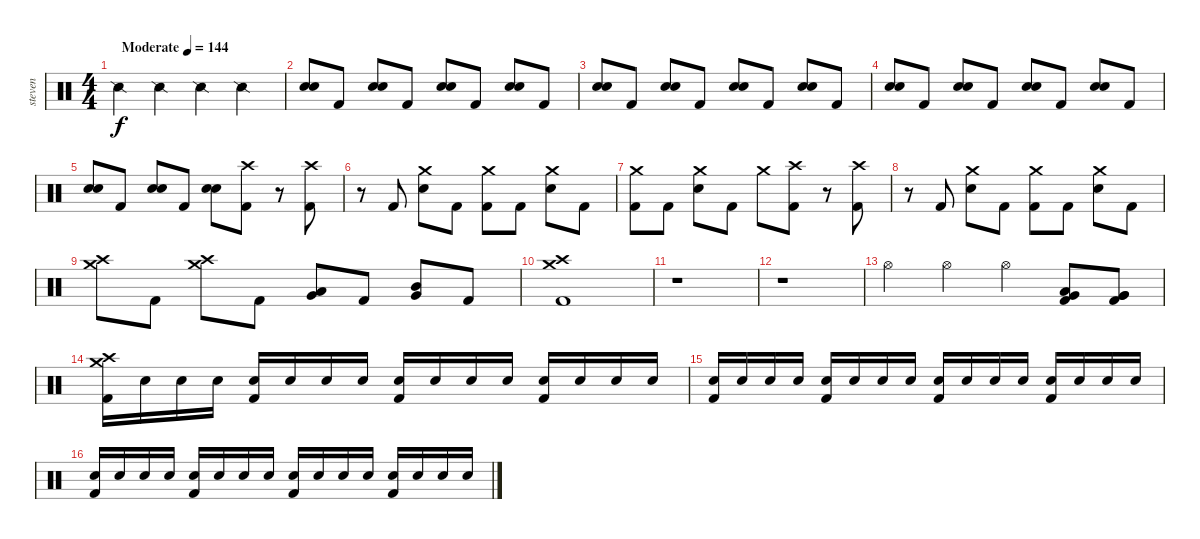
\track ("steven" "steven") {instrument percussion}
\staff {score}
\articulation defaults
\ts (4 4)
\tempo (144 "Moderate")
\clef neutral
\ks c "Snare (side stick) 2".4{dy f} "Snare (side stick) 2".4 "Snare (side stick) 2".4 "Snare (side stick) 2".4
|
("Electric Snare (hit)" "Electric Snare (hit)").8 "Kick (hit) 2".8 ("Electric Snare (hit)" "Electric Snare (hit)").8 "Kick (hit) 2".8 ("Electric Snare (hit)" "Electric Snare (hit)").8 "Kick (hit) 2".8 ("Electric Snare (hit)" "Electric Snare (hit)").8 "Kick (hit) 2".8 |
("Electric Snare (hit)" "Electric Snare (hit)").8 "Kick (hit) 2".8 ("Electric Snare (hit)" "Electric Snare (hit)").8 "Kick (hit) 2".8 ("Electric Snare (hit)" "Electric Snare (hit)").8 "Kick (hit) 2".8 ("Electric Snare (hit)" "Electric Snare (hit)").8 "Kick (hit) 2".8 |
("Electric Snare (hit)" "Electric Snare (hit)").8 "Kick (hit) 2".8 ("Electric Snare (hit)" "Electric Snare (hit)").8 "Kick (hit) 2".8 ("Electric Snare (hit)" "Electric Snare (hit)").8 "Kick (hit) 2".8 ("Electric Snare (hit)" "Electric Snare (hit)").8 "Kick (hit) 2".8 |
("Electric Snare (hit)" "Electric Snare (hit)").8 "Kick (hit) 2".8 ("Electric Snare (hit)" "Electric Snare (hit)").8 "Kick (hit) 2".8 ("Electric Snare (hit)" "Electric Snare (hit)").8 ("Crash high (hit)" "Kick (hit) 2").8 r.8 ("Crash high (hit)" "Kick (hit) 2").8 |
r.8 "Kick (hit) 2".8 ("Crash medium (hit)" "Electric Snare (hit)").8 "Kick (hit) 2".8 ("Crash medium (hit)" "Kick (hit) 2").8 "Kick (hit) 2".8 ("Crash medium (hit)" "Electric Snare (hit)").8 "Kick (hit) 2".8 |
("Crash medium (hit)" "Kick (hit) 2").8 "Kick (hit) 2".8 ("Crash medium (hit)" "Electric Snare (hit)").8 "Kick (hit) 2".8 "Crash medium (hit)".8 ("Crash high (hit)" "Kick (hit) 2").8 r.8 ("Crash high (hit)" "Kick (hit) 2").8 |
r.8 "Kick (hit) 2".8 ("Crash medium (hit)" "Electric Snare (hit)").8 "Kick (hit) 2".8 ("Crash medium (hit)" "Kick (hit) 2").8 "Kick (hit) 2".8 ("Crash medium (hit)" "Electric Snare (hit)").8 "Kick (hit) 2".8 |
("Crash medium (hit)" "Crash high (hit)").8 "Kick (hit) 2".8 ("Crash medium (hit)" "Crash high (hit)").8 "Kick (hit) 2".8 ("Low Tom (hit)" "Very Low Tom (hit)").8 "Kick (hit) 2".8 ("Mid Tom (hit)" "Very Low Tom (hit)").8 "Kick (hit) 2".8 |
("Crash medium (hit)" "Crash high (hit)" "Kick (hit) 2").1 |
r.1 |
r.1 |
"Hi-Hat (open)".4 "Hi-Hat (open)".4 "Hi-Hat (open)".4 ("Low Tom (hit)" "Very Low Tom (hit)" "Kick (hit) 2").8 ("Very Low Tom (hit)" "Very Low Tom (hit)" "Kick (hit) 2").8 |
("Crash high (hit)" "Crash medium (hit)" "Kick (hit) 2").16 "Electric Snare (hit)".16 "Electric Snare (hit)".16 "Electric Snare (hit)".16 ("Electric Snare (hit)" "Kick (hit) 2").16 "Electric Snare (hit)".16 "Electric Snare (hit)".16 "Electric Snare (hit)".16 ("Electric Snare (hit)" "Kick (hit) 2").16 "Electric Snare (hit)".16 "Electric Snare (hit)".16 "Electric Snare (hit)".16 ("Electric Snare (hit)" "Kick (hit) 2").16 "Electric Snare (hit)".16 "Electric Snare (hit)".16 "Electric Snare (hit)".16 |
("Electric Snare (hit)" "Kick (hit) 2").16 "Electric Snare (hit)".16 "Electric Snare (hit)".16 "Electric Snare (hit)".16 ("Electric Snare (hit)" "Kick (hit) 2").16 "Electric Snare (hit)".16 "Electric Snare (hit)".16 "Electric Snare (hit)".16 ("Electric Snare (hit)" "Kick (hit) 2").16 "Electric Snare (hit)".16 "Electric Snare (hit)".16 "Electric Snare (hit)".16 ("Electric Snare (hit)" "Kick (hit) 2").16 "Electric Snare (hit)".16 "Electric Snare (hit)".16 "Electric Snare (hit)".16 |
("Electric Snare (hit)" "Kick (hit) 2").16 "Electric Snare (hit)".16 "Electric Snare (hit)".16 "Electric Snare (hit)".16 ("Electric Snare (hit)" "Kick (hit) 2").16 "Electric Snare (hit)".16 "Electric Snare (hit)".16 "Electric Snare (hit)".16 ("Electric Snare (hit)" "Kick (hit) 2").16 "Electric Snare (hit)".16 "Electric Snare (hit)".16 "Electric Snare (hit)".16 ("Electric Snare (hit)" "Kick (hit) 2").16 "Electric Snare (hit)".16 "Electric Snare (hit)".16 "Electric Snare (hit)".16
